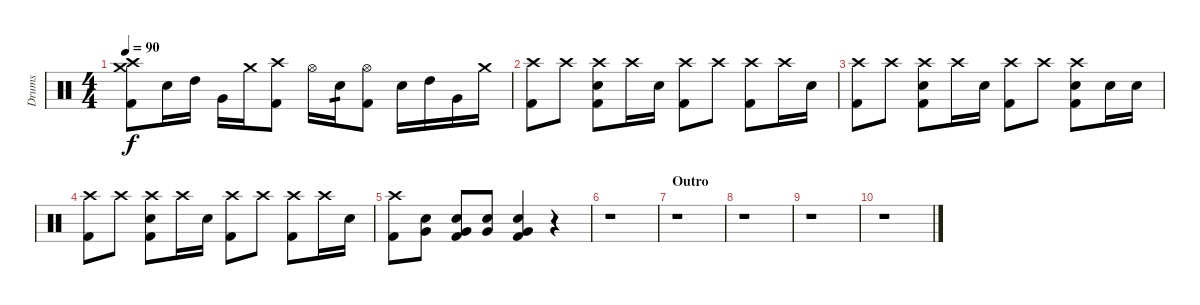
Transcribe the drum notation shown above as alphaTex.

\track ("Drums" "Drums") {instrument percussion}
\staff {score}
\articulation defaults
\ts (4 4)
\tempo 90
\clef neutral
\ks c
("Crash high (hit)" "Crash medium (hit)" "Kick (hit) 2").8{dy f} "Snare (hit) 2".16 "High Tom (hit)".16 "Very Low Tom (hit)".16 "Crash medium (hit)".16 ("Crash high (hit)" "Kick (hit) 2").8 "Hi-Hat (open)".16 "Snare (hit) 2".16{tp 1} ("Hi-Hat (open)" "Kick (hit) 2").8 "Snare (hit) 2".16 "High Tom (hit)".16 "Very Low Tom (hit)".16 "Crash medium (hit)".16 |
("Crash high (hit)" "Kick (hit) 2").8 "Crash high (hit)".8 ("Crash high (hit)" "Snare (hit) 2" "Kick (hit) 2").8 "Crash high (hit)".16 "Snare (hit) 2".16 ("Crash high (hit)" "Kick (hit) 2").8 "Crash high (hit)".8 ("Crash high (hit)" "Kick (hit) 2").8 "Crash high (hit)".16 "Snare (hit) 2".16 |
("Crash high (hit)" "Kick (hit) 2").8 "Crash high (hit)".8 ("Crash high (hit)" "Snare (hit) 2" "Kick (hit) 2").8 "Crash high (hit)".16 "Snare (hit) 2".16 ("Crash high (hit)" "Kick (hit) 2").8 "Crash high (hit)".8 ("Crash high (hit)" "Snare (hit) 2" "Kick (hit) 2").8 "Snare (hit) 2".16 "Snare (hit) 2".16 |
("Crash high (hit)" "Kick (hit) 2").8 "Crash high (hit)".8 ("Crash high (hit)" "Snare (hit) 2" "Kick (hit) 2").8 "Crash high (hit)".16 "Snare (hit) 2".16 ("Crash high (hit)" "Kick (hit) 2").8 "Crash high (hit)".8 ("Crash high (hit)" "Kick (hit) 2").8 "Crash high (hit)".16 "Snare (hit) 2".16 |
("Crash high (hit)" "Kick (hit) 2").8 ("Snare (hit) 2" "Very Low Tom (hit)").8 ("Snare (hit) 2" "Very Low Tom (hit)" "Kick (hit) 2").8 ("Snare (hit) 2" "Very Low Tom (hit)").8 ("Snare (hit) 2" "Very Low Tom (hit)" "Kick (hit) 2").4 r.4 |
r.1 |
\section ("" "Outro")
r.1 |
r.1 |
r.1 |
r.1
